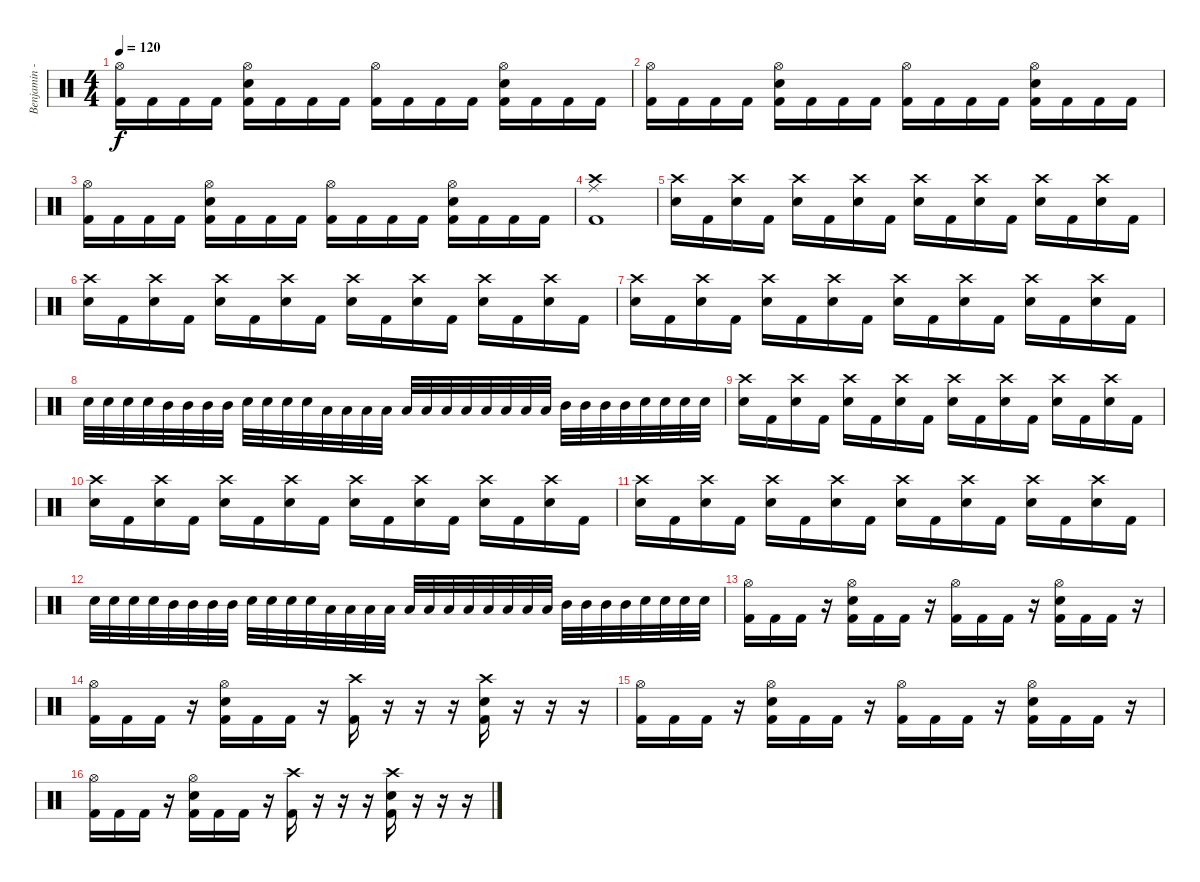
\track ("Benjamin - Drums" "Benjamin -") {instrument percussion}
\staff {score}
\articulation defaults
\ts (4 4)
\tempo 120
\clef neutral
\ks c
("Hi-Hat (open)" "Kick (hit) 2").16{dy f} "Kick (hit) 2".16 "Kick (hit) 2".16 "Kick (hit) 2".16 ("Hi-Hat (open)" "Snare (hit) 2" "Kick (hit) 2").16 "Kick (hit) 2".16 "Kick (hit) 2".16 "Kick (hit) 2".16 ("Hi-Hat (open)" "Kick (hit) 2").16 "Kick (hit) 2".16 "Kick (hit) 2".16 "Kick (hit) 2".16 ("Hi-Hat (open)" "Snare (hit) 2" "Kick (hit) 2").16 "Kick (hit) 2".16 "Kick (hit) 2".16 "Kick (hit) 2".16 |
("Hi-Hat (open)" "Kick (hit) 2").16 "Kick (hit) 2".16 "Kick (hit) 2".16 "Kick (hit) 2".16 ("Hi-Hat (open)" "Snare (hit) 2" "Kick (hit) 2").16 "Kick (hit) 2".16 "Kick (hit) 2".16 "Kick (hit) 2".16 ("Hi-Hat (open)" "Kick (hit) 2").16 "Kick (hit) 2".16 "Kick (hit) 2".16 "Kick (hit) 2".16 ("Hi-Hat (open)" "Snare (hit) 2" "Kick (hit) 2").16 "Kick (hit) 2".16 "Kick (hit) 2".16 "Kick (hit) 2".16 |
("Hi-Hat (open)" "Kick (hit) 2").16 "Kick (hit) 2".16 "Kick (hit) 2".16 "Kick (hit) 2".16 ("Hi-Hat (open)" "Snare (hit) 2" "Kick (hit) 2").16 "Kick (hit) 2".16 "Kick (hit) 2".16 "Kick (hit) 2".16 ("Hi-Hat (open)" "Kick (hit) 2").16 "Kick (hit) 2".16 "Kick (hit) 2".16 "Kick (hit) 2".16 ("Hi-Hat (open)" "Snare (hit) 2" "Kick (hit) 2").16 "Kick (hit) 2".16 "Kick (hit) 2".16 "Kick (hit) 2".16 |
("Crash high (hit)" "Ride (middle)" "Kick (hit) 2").1 |
("Crash high (hit)" "Snare (hit) 2").16 "Kick (hit) 2".16 ("Crash high (hit)" "Snare (hit) 2").16 "Kick (hit) 2".16 ("Crash high (hit)" "Snare (hit) 2").16 "Kick (hit) 2".16 ("Crash high (hit)" "Snare (hit) 2").16 "Kick (hit) 2".16 ("Crash high (hit)" "Snare (hit) 2").16 "Kick (hit) 2".16 ("Crash high (hit)" "Snare (hit) 2").16 "Kick (hit) 2".16 ("Crash high (hit)" "Snare (hit) 2").16 "Kick (hit) 2".16 ("Crash high (hit)" "Snare (hit) 2").16 "Kick (hit) 2".16 |
("Crash high (hit)" "Snare (hit) 2").16 "Kick (hit) 2".16 ("Crash high (hit)" "Snare (hit) 2").16 "Kick (hit) 2".16 ("Crash high (hit)" "Snare (hit) 2").16 "Kick (hit) 2".16 ("Crash high (hit)" "Snare (hit) 2").16 "Kick (hit) 2".16 ("Crash high (hit)" "Snare (hit) 2").16 "Kick (hit) 2".16 ("Crash high (hit)" "Snare (hit) 2").16 "Kick (hit) 2".16 ("Crash high (hit)" "Snare (hit) 2").16 "Kick (hit) 2".16 ("Crash high (hit)" "Snare (hit) 2").16 "Kick (hit) 2".16 |
("Crash high (hit)" "Snare (hit) 2").16 "Kick (hit) 2".16 ("Crash high (hit)" "Snare (hit) 2").16 "Kick (hit) 2".16 ("Crash high (hit)" "Snare (hit) 2").16 "Kick (hit) 2".16 ("Crash high (hit)" "Snare (hit) 2").16 "Kick (hit) 2".16 ("Crash high (hit)" "Snare (hit) 2").16 "Kick (hit) 2".16 ("Crash high (hit)" "Snare (hit) 2").16 "Kick (hit) 2".16 ("Crash high (hit)" "Snare (hit) 2").16 "Kick (hit) 2".16 ("Crash high (hit)" "Snare (hit) 2").16 "Kick (hit) 2".16 |
"Snare (hit) 2".32 "Snare (hit) 2".32 "Snare (hit) 2".32 "Snare (hit) 2".32 "Mid Tom (hit)".32 "Mid Tom (hit)".32 "Mid Tom (hit)".32 "Mid Tom (hit)".32 "Snare (hit) 2".32 "Snare (hit) 2".32 "Snare (hit) 2".32 "Snare (hit) 2".32 "Low Tom (hit)".32 "Low Tom (hit)".32 "Low Tom (hit)".32 "Low Tom (hit)".32 "Low Floor Tom (hit)".32 "Low Floor Tom (hit)".32 "Low Floor Tom (hit)".32 "Low Floor Tom (hit)".32 "Low Tom (hit)".32 "Low Tom (hit)".32 "Low Tom (hit)".32 "Low Tom (hit)".32 "Mid Tom (hit)".32 "Mid Tom (hit)".32 "Mid Tom (hit)".32 "Mid Tom (hit)".32 "Snare (hit) 2".32 "Snare (hit) 2".32 "Snare (hit) 2".32 "Snare (hit) 2".32 |
("Crash high (hit)" "Snare (hit) 2").16 "Kick (hit) 2".16 ("Crash high (hit)" "Snare (hit) 2").16 "Kick (hit) 2".16 ("Crash high (hit)" "Snare (hit) 2").16 "Kick (hit) 2".16 ("Crash high (hit)" "Snare (hit) 2").16 "Kick (hit) 2".16 ("Crash high (hit)" "Snare (hit) 2").16 "Kick (hit) 2".16 ("Crash high (hit)" "Snare (hit) 2").16 "Kick (hit) 2".16 ("Crash high (hit)" "Snare (hit) 2").16 "Kick (hit) 2".16 ("Crash high (hit)" "Snare (hit) 2").16 "Kick (hit) 2".16 |
("Crash high (hit)" "Snare (hit) 2").16 "Kick (hit) 2".16 ("Crash high (hit)" "Snare (hit) 2").16 "Kick (hit) 2".16 ("Crash high (hit)" "Snare (hit) 2").16 "Kick (hit) 2".16 ("Crash high (hit)" "Snare (hit) 2").16 "Kick (hit) 2".16 ("Crash high (hit)" "Snare (hit) 2").16 "Kick (hit) 2".16 ("Crash high (hit)" "Snare (hit) 2").16 "Kick (hit) 2".16 ("Crash high (hit)" "Snare (hit) 2").16 "Kick (hit) 2".16 ("Crash high (hit)" "Snare (hit) 2").16 "Kick (hit) 2".16 |
("Crash high (hit)" "Snare (hit) 2").16 "Kick (hit) 2".16 ("Crash high (hit)" "Snare (hit) 2").16 "Kick (hit) 2".16 ("Crash high (hit)" "Snare (hit) 2").16 "Kick (hit) 2".16 ("Crash high (hit)" "Snare (hit) 2").16 "Kick (hit) 2".16 ("Crash high (hit)" "Snare (hit) 2").16 "Kick (hit) 2".16 ("Crash high (hit)" "Snare (hit) 2").16 "Kick (hit) 2".16 ("Crash high (hit)" "Snare (hit) 2").16 "Kick (hit) 2".16 ("Crash high (hit)" "Snare (hit) 2").16 "Kick (hit) 2".16 |
"Snare (hit) 2".32 "Snare (hit) 2".32 "Snare (hit) 2".32 "Snare (hit) 2".32 "Mid Tom (hit)".32 "Mid Tom (hit)".32 "Mid Tom (hit)".32 "Mid Tom (hit)".32 "Snare (hit) 2".32 "Snare (hit) 2".32 "Snare (hit) 2".32 "Snare (hit) 2".32 "Low Tom (hit)".32 "Low Tom (hit)".32 "Low Tom (hit)".32 "Low Tom (hit)".32 "Low Floor Tom (hit)".32 "Low Floor Tom (hit)".32 "Low Floor Tom (hit)".32 "Low Floor Tom (hit)".32 "Low Tom (hit)".32 "Low Tom (hit)".32 "Low Tom (hit)".32 "Low Tom (hit)".32 "Mid Tom (hit)".32 "Mid Tom (hit)".32 "Mid Tom (hit)".32 "Mid Tom (hit)".32 "Snare (hit) 2".32 "Snare (hit) 2".32 "Snare (hit) 2".32 "Snare (hit) 2".32 |
("Hi-Hat (open)" "Kick (hit) 2").16 "Kick (hit) 2".16 "Kick (hit) 2".16 r.16 ("Hi-Hat (open)" "Snare (hit) 2" "Kick (hit) 2").16 "Kick (hit) 2".16 "Kick (hit) 2".16 r.16 ("Hi-Hat (open)" "Kick (hit) 2").16 "Kick (hit) 2".16 "Kick (hit) 2".16 r.16 ("Hi-Hat (open)" "Snare (hit) 2" "Kick (hit) 2").16 "Kick (hit) 2".16 "Kick (hit) 2".16 r.16 |
("Hi-Hat (open)" "Kick (hit) 2").16 "Kick (hit) 2".16 "Kick (hit) 2".16 r.16 ("Hi-Hat (open)" "Snare (hit) 2" "Kick (hit) 2").16 "Kick (hit) 2".16 "Kick (hit) 2".16 r.16 ("Crash high (hit)" "Kick (hit) 2").16 r.16 r.16 r.16 ("Crash high (hit)" "Snare (hit) 2" "Kick (hit) 2").16 r.16 r.16 r.16 |
("Hi-Hat (open)" "Kick (hit) 2").16 "Kick (hit) 2".16 "Kick (hit) 2".16 r.16 ("Hi-Hat (open)" "Snare (hit) 2" "Kick (hit) 2").16 "Kick (hit) 2".16 "Kick (hit) 2".16 r.16 ("Hi-Hat (open)" "Kick (hit) 2").16 "Kick (hit) 2".16 "Kick (hit) 2".16 r.16 ("Hi-Hat (open)" "Snare (hit) 2" "Kick (hit) 2").16 "Kick (hit) 2".16 "Kick (hit) 2".16 r.16 |
("Hi-Hat (open)" "Kick (hit) 2").16 "Kick (hit) 2".16 "Kick (hit) 2".16 r.16 ("Hi-Hat (open)" "Snare (hit) 2" "Kick (hit) 2").16 "Kick (hit) 2".16 "Kick (hit) 2".16 r.16 ("Crash high (hit)" "Kick (hit) 2").16 r.16 r.16 r.16 ("Crash high (hit)" "Snare (hit) 2" "Kick (hit) 2").16 r.16 r.16 r.16
